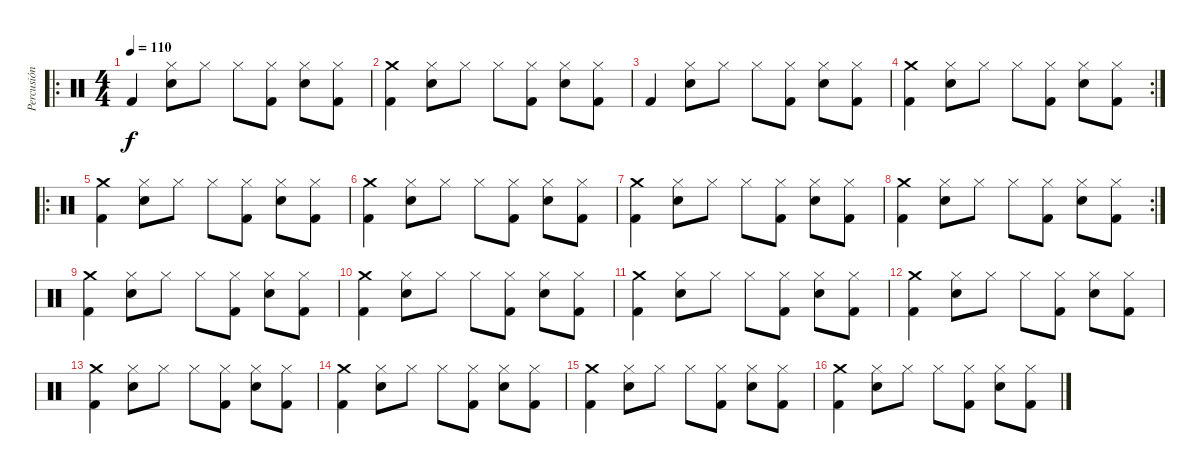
\track ("Percusión" "Percusión") {instrument percussion}
\staff {score}
\articulation defaults
\ro
\ts (4 4)
\tempo 110
\clef neutral
\ks c "Kick (hit) 2".4{dy f}
("Snare (hit) 2" "Hi-Hat (closed)").8 "Hi-Hat (closed)".8 "Hi-Hat (closed)".8 ("Kick (hit) 2" "Hi-Hat (closed)").8 ("Snare (hit) 2" "Hi-Hat (closed)").8 ("Kick (hit) 2" "Hi-Hat (closed)").8 |
("Crash medium (hit)" "Kick (hit) 2").4 ("Snare (hit) 2" "Hi-Hat (closed)").8 "Hi-Hat (closed)".8 "Hi-Hat (closed)".8 ("Kick (hit) 2" "Hi-Hat (closed)").8 ("Snare (hit) 2" "Hi-Hat (closed)").8 ("Kick (hit) 2" "Hi-Hat (closed)").8 |
"Kick (hit) 2".4 ("Snare (hit) 2" "Hi-Hat (closed)").8 "Hi-Hat (closed)".8 "Hi-Hat (closed)".8 ("Kick (hit) 2" "Hi-Hat (closed)").8 ("Snare (hit) 2" "Hi-Hat (closed)").8 ("Kick (hit) 2" "Hi-Hat (closed)").8 |
\rc 2
("Crash medium (hit)" "Kick (hit) 2").4 ("Snare (hit) 2" "Hi-Hat (closed)").8 "Hi-Hat (closed)".8 "Hi-Hat (closed)".8 ("Kick (hit) 2" "Hi-Hat (closed)").8 ("Snare (hit) 2" "Hi-Hat (closed)").8 ("Kick (hit) 2" "Hi-Hat (closed)").8 |
\ro
("Crash medium (hit)" "Kick (hit) 2").4 ("Snare (hit) 2" "Hi-Hat (closed)").8 "Hi-Hat (closed)".8 "Hi-Hat (closed)".8 ("Kick (hit) 2" "Hi-Hat (closed)").8 ("Snare (hit) 2" "Hi-Hat (closed)").8 ("Kick (hit) 2" "Hi-Hat (closed)").8 |
("Crash medium (hit)" "Kick (hit) 2").4 ("Snare (hit) 2" "Hi-Hat (closed)").8 "Hi-Hat (closed)".8 "Hi-Hat (closed)".8 ("Kick (hit) 2" "Hi-Hat (closed)").8 ("Snare (hit) 2" "Hi-Hat (closed)").8 ("Kick (hit) 2" "Hi-Hat (closed)").8 |
("Crash medium (hit)" "Kick (hit) 2").4 ("Snare (hit) 2" "Hi-Hat (closed)").8 "Hi-Hat (closed)".8 "Hi-Hat (closed)".8 ("Kick (hit) 2" "Hi-Hat (closed)").8 ("Snare (hit) 2" "Hi-Hat (closed)").8 ("Kick (hit) 2" "Hi-Hat (closed)").8 |
\rc 2
("Crash medium (hit)" "Kick (hit) 2").4 ("Snare (hit) 2" "Hi-Hat (closed)").8 "Hi-Hat (closed)".8 "Hi-Hat (closed)".8 ("Kick (hit) 2" "Hi-Hat (closed)").8 ("Snare (hit) 2" "Hi-Hat (closed)").8 ("Kick (hit) 2" "Hi-Hat (closed)").8 |
("Crash medium (hit)" "Kick (hit) 2").4 ("Snare (hit) 2" "Hi-Hat (closed)").8 "Hi-Hat (closed)".8 "Hi-Hat (closed)".8 ("Kick (hit) 2" "Hi-Hat (closed)").8 ("Snare (hit) 2" "Hi-Hat (closed)").8 ("Kick (hit) 2" "Hi-Hat (closed)").8 |
("Crash medium (hit)" "Kick (hit) 2").4 ("Snare (hit) 2" "Hi-Hat (closed)").8 "Hi-Hat (closed)".8 "Hi-Hat (closed)".8 ("Kick (hit) 2" "Hi-Hat (closed)").8 ("Snare (hit) 2" "Hi-Hat (closed)").8 ("Kick (hit) 2" "Hi-Hat (closed)").8 |
("Crash medium (hit)" "Kick (hit) 2").4 ("Snare (hit) 2" "Hi-Hat (closed)").8 "Hi-Hat (closed)".8 "Hi-Hat (closed)".8 ("Kick (hit) 2" "Hi-Hat (closed)").8 ("Snare (hit) 2" "Hi-Hat (closed)").8 ("Kick (hit) 2" "Hi-Hat (closed)").8 |
("Crash medium (hit)" "Kick (hit) 2").4 ("Snare (hit) 2" "Hi-Hat (closed)").8 "Hi-Hat (closed)".8 "Hi-Hat (closed)".8 ("Kick (hit) 2" "Hi-Hat (closed)").8 ("Snare (hit) 2" "Hi-Hat (closed)").8 ("Kick (hit) 2" "Hi-Hat (closed)").8 |
("Crash medium (hit)" "Kick (hit) 2").4 ("Snare (hit) 2" "Hi-Hat (closed)").8 "Hi-Hat (closed)".8 "Hi-Hat (closed)".8 ("Kick (hit) 2" "Hi-Hat (closed)").8 ("Snare (hit) 2" "Hi-Hat (closed)").8 ("Kick (hit) 2" "Hi-Hat (closed)").8 |
("Crash medium (hit)" "Kick (hit) 2").4 ("Snare (hit) 2" "Hi-Hat (closed)").8 "Hi-Hat (closed)".8 "Hi-Hat (closed)".8 ("Kick (hit) 2" "Hi-Hat (closed)").8 ("Snare (hit) 2" "Hi-Hat (closed)").8 ("Kick (hit) 2" "Hi-Hat (closed)").8 |
("Crash medium (hit)" "Kick (hit) 2").4 ("Snare (hit) 2" "Hi-Hat (closed)").8 "Hi-Hat (closed)".8 "Hi-Hat (closed)".8 ("Kick (hit) 2" "Hi-Hat (closed)").8 ("Snare (hit) 2" "Hi-Hat (closed)").8 ("Kick (hit) 2" "Hi-Hat (closed)").8 |
("Crash medium (hit)" "Kick (hit) 2").4 ("Snare (hit) 2" "Hi-Hat (closed)").8 "Hi-Hat (closed)".8 "Hi-Hat (closed)".8 ("Kick (hit) 2" "Hi-Hat (closed)").8 ("Snare (hit) 2" "Hi-Hat (closed)").8 ("Kick (hit) 2" "Hi-Hat (closed)").8
